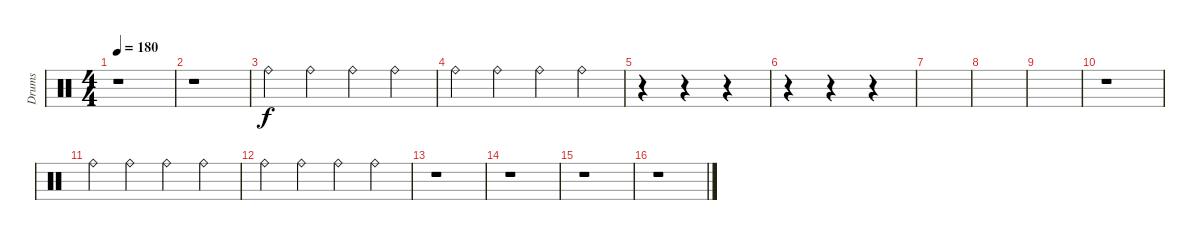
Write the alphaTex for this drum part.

\track ("Drums" "Drums") {instrument percussion}
\staff {score}
\articulation defaults
\ts (4 4)
\tempo 180
\clef neutral
\ks c
r.1{dy f} |
r.1{volume 0} |
"Ride (bell)".4{volume 16} "Ride (bell)".4 "Ride (bell)".4 "Ride (bell)".4 |
"Ride (bell)".4 "Ride (bell)".4 "Ride (bell)".4 "Ride (bell)".4 |
r.4 r.4 r.4 |
r.4 r.4 r.4 |
|
|
|
r.1{volume 0} |
"Ride (bell)".4{volume 16} "Ride (bell)".4 "Ride (bell)".4 "Ride (bell)".4 |
"Ride (bell)".4 "Ride (bell)".4 "Ride (bell)".4 "Ride (bell)".4 |
r.1 |
r.1 |
r.1 |
r.1
